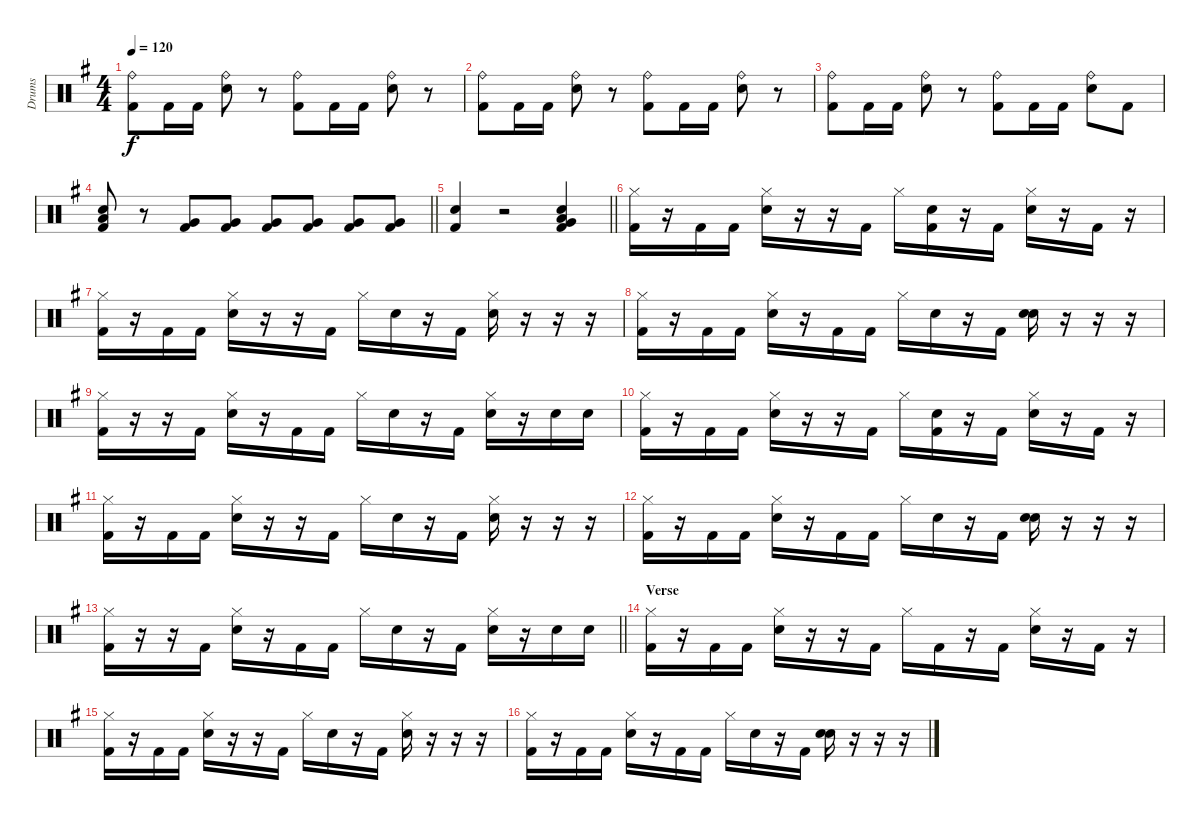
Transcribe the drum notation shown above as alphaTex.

\track ("Drums" "Drums") {instrument percussion}
\staff {score}
\articulation defaults
\ts (4 4)
\tempo 120
\clef neutral
\ks g
("Ride (bell)" "Kick (hit) 2").8{dy f} "Kick (hit) 2".16 "Kick (hit) 2".16 ("Ride (bell)" "Electric Snare (hit)").8 r.8 ("Ride (bell)" "Kick (hit) 2").8 "Kick (hit) 2".16 "Kick (hit) 2".16 ("Ride (bell)" "Electric Snare (hit)").8 r.8 |
("Ride (bell)" "Kick (hit) 2").8 "Kick (hit) 2".16 "Kick (hit) 2".16 ("Ride (bell)" "Electric Snare (hit)").8 r.8 ("Ride (bell)" "Kick (hit) 2").8 "Kick (hit) 2".16 "Kick (hit) 2".16 ("Ride (bell)" "Electric Snare (hit)").8 r.8 |
("Ride (bell)" "Kick (hit) 2").8 "Kick (hit) 2".16 "Kick (hit) 2".16 ("Ride (bell)" "Electric Snare (hit)").8 r.8 ("Ride (bell)" "Kick (hit) 2").8 "Kick (hit) 2".16 "Kick (hit) 2".16 ("Ride (bell)" "Electric Snare (hit)").8 "Kick (hit) 2".8 |
\barLineRight lightlight
("Electric Snare (hit)" "Low Tom (hit)" "Kick (hit) 2").8 r.8 ("Very Low Tom (hit)" "Kick (hit) 2").8 ("Very Low Tom (hit)" "Kick (hit) 2").8 ("Very Low Tom (hit)" "Kick (hit) 2").8 ("Very Low Tom (hit)" "Kick (hit) 2").8 ("Very Low Tom (hit)" "Kick (hit) 2").8 ("Very Low Tom (hit)" "Kick (hit) 2").8 |
\barLineRight lightlight
("Electric Snare (hit)" "Kick (hit) 2").4 r.2 ("Electric Snare (hit)" "Very Low Tom (hit)" "Low Floor Tom (hit)" "Kick (hit) 2").4 |
("Hi-Hat (closed)" "Kick (hit) 2").16 r.16 "Kick (hit) 2".16 "Kick (hit) 2".16 ("Hi-Hat (closed)" "Electric Snare (hit)").16 r.16 r.16 "Kick (hit) 2".16 "Hi-Hat (closed)".16 ("Electric Snare (hit)" "Kick (hit) 2").16 r.16 "Kick (hit) 2".16 ("Hi-Hat (closed)" "Electric Snare (hit)").16 r.16 "Kick (hit) 2".16 r.16 |
("Hi-Hat (closed)" "Kick (hit) 2").16 r.16 "Kick (hit) 2".16 "Kick (hit) 2".16 ("Hi-Hat (closed)" "Electric Snare (hit)").16 r.16 r.16 "Kick (hit) 2".16 "Hi-Hat (closed)".16 "Electric Snare (hit)".16 r.16 "Kick (hit) 2".16 ("Hi-Hat (closed)" "Electric Snare (hit)").16 r.16 r.16 r.16 |
("Hi-Hat (closed)" "Kick (hit) 2").16 r.16 "Kick (hit) 2".16 "Kick (hit) 2".16 ("Hi-Hat (closed)" "Electric Snare (hit)").16 r.16 "Kick (hit) 2".16 "Kick (hit) 2".16 "Hi-Hat (closed)".16 "Electric Snare (hit)".16 r.16 "Kick (hit) 2".16 ("Electric Snare (hit)" "Electric Snare (hit)").16 r.16 r.16 r.16 |
("Hi-Hat (closed)" "Kick (hit) 2").16 r.16 r.16 "Kick (hit) 2".16 ("Hi-Hat (closed)" "Electric Snare (hit)").16 r.16 "Kick (hit) 2".16 "Kick (hit) 2".16 "Hi-Hat (closed)".16 "Electric Snare (hit)".16 r.16 "Kick (hit) 2".16 ("Hi-Hat (closed)" "Electric Snare (hit)").16 r.16 "Electric Snare (hit)".16 "Electric Snare (hit)".16 |
("Hi-Hat (closed)" "Kick (hit) 2").16 r.16 "Kick (hit) 2".16 "Kick (hit) 2".16 ("Hi-Hat (closed)" "Electric Snare (hit)").16 r.16 r.16 "Kick (hit) 2".16 "Hi-Hat (closed)".16 ("Electric Snare (hit)" "Kick (hit) 2").16 r.16 "Kick (hit) 2".16 ("Hi-Hat (closed)" "Electric Snare (hit)").16 r.16 "Kick (hit) 2".16 r.16 |
("Hi-Hat (closed)" "Kick (hit) 2").16 r.16 "Kick (hit) 2".16 "Kick (hit) 2".16 ("Hi-Hat (closed)" "Electric Snare (hit)").16 r.16 r.16 "Kick (hit) 2".16 "Hi-Hat (closed)".16 "Electric Snare (hit)".16 r.16 "Kick (hit) 2".16 ("Hi-Hat (closed)" "Electric Snare (hit)").16 r.16 r.16 r.16 |
("Hi-Hat (closed)" "Kick (hit) 2").16 r.16 "Kick (hit) 2".16 "Kick (hit) 2".16 ("Hi-Hat (closed)" "Electric Snare (hit)").16 r.16 "Kick (hit) 2".16 "Kick (hit) 2".16 "Hi-Hat (closed)".16 "Electric Snare (hit)".16 r.16 "Kick (hit) 2".16 ("Electric Snare (hit)" "Electric Snare (hit)").16 r.16 r.16 r.16 |
\barLineRight lightlight
("Hi-Hat (closed)" "Kick (hit) 2").16 r.16 r.16 "Kick (hit) 2".16 ("Hi-Hat (closed)" "Electric Snare (hit)").16 r.16 "Kick (hit) 2".16 "Kick (hit) 2".16 "Hi-Hat (closed)".16 "Electric Snare (hit)".16 r.16 "Kick (hit) 2".16 ("Hi-Hat (closed)" "Electric Snare (hit)").16 r.16 "Electric Snare (hit)".16 "Electric Snare (hit)".16 |
\section ("" "Verse")
("Hi-Hat (closed)" "Kick (hit) 2").16 r.16 "Kick (hit) 2".16 "Kick (hit) 2".16 ("Hi-Hat (closed)" "Electric Snare (hit)").16 r.16 r.16 "Kick (hit) 2".16 "Hi-Hat (closed)".16 "Kick (hit) 2".16 r.16 "Kick (hit) 2".16 ("Hi-Hat (closed)" "Electric Snare (hit)").16 r.16 "Kick (hit) 2".16 r.16 |
("Hi-Hat (closed)" "Kick (hit) 2").16 r.16 "Kick (hit) 2".16 "Kick (hit) 2".16 ("Hi-Hat (closed)" "Electric Snare (hit)").16 r.16 r.16 "Kick (hit) 2".16 "Hi-Hat (closed)".16 "Electric Snare (hit)".16 r.16 "Kick (hit) 2".16 ("Hi-Hat (closed)" "Electric Snare (hit)").16 r.16 r.16 r.16 |
("Hi-Hat (closed)" "Kick (hit) 2").16 r.16 "Kick (hit) 2".16 "Kick (hit) 2".16 ("Hi-Hat (closed)" "Electric Snare (hit)").16 r.16 "Kick (hit) 2".16 "Kick (hit) 2".16 "Hi-Hat (closed)".16 "Electric Snare (hit)".16 r.16 "Kick (hit) 2".16 ("Electric Snare (hit)" "Electric Snare (hit)").16 r.16 r.16 r.16
